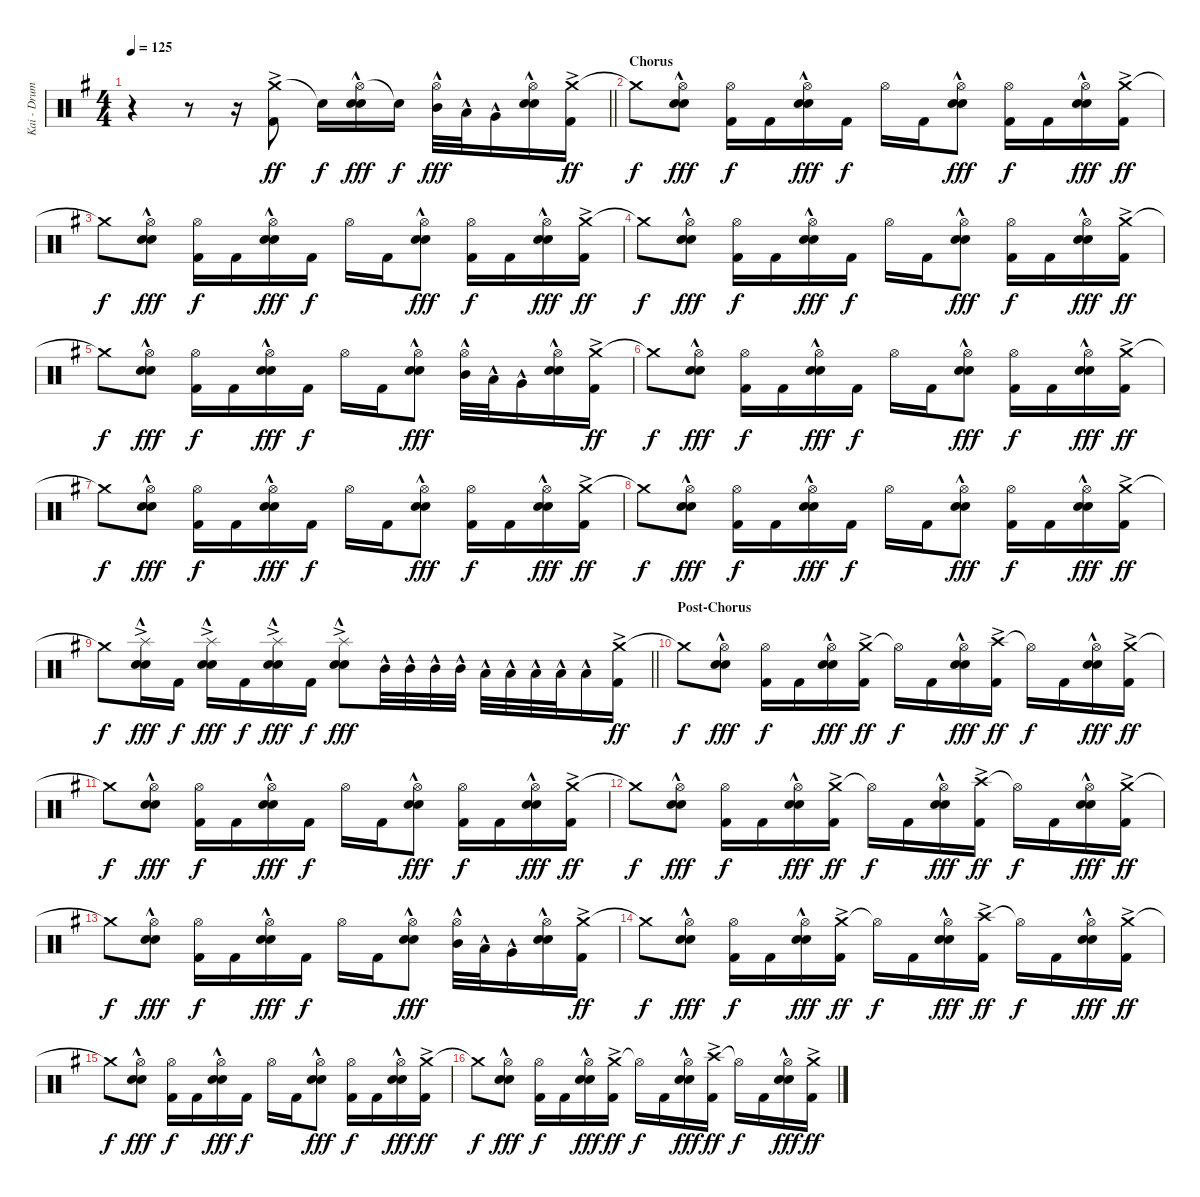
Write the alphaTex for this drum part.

\track ("Kai - Drums" "Kai - Drum") {instrument percussion}
\staff {score}
\articulation defaults
\ts (4 4)
\tempo 125
\clef neutral
\barLineRight lightlight
\ks eminor
r.4{dy fff} r.8 r.16 ("Crash medium (hit)"{ac} "Kick (hit) 2").8{dy ff} "Snare (hit)"{t}.16{dy f} ("Hi-Hat (open)" "Electric Snare (hit)"{hac} "Snare (hit) 2"{hac}).16{dy fff} "Snare (hit)"{t}.16{dy f} ("Hi-Hat (open)" "Mid Tom (hit)"{hac}).32{dy fff} "Low Tom (hit)"{hac}.32 "Very Low Tom (hit)"{hac}.16 ("Hi-Hat (open)" "Electric Snare (hit)"{hac} "Snare (hit) 2"{hac}).16 ("Crash medium (hit)"{ac} "Kick (hit) 2").16{dy ff} |
\section ("" "Chorus")
"Crash medium (hit)"{t}.8{dy f} ("Hi-Hat (open)" "Electric Snare (hit)"{hac} "Snare (hit) 2"{hac}).8{dy fff} ("Hi-Hat (open)" "Kick (hit) 2").16{dy f} "Kick (hit) 2".16 ("Hi-Hat (open)" "Electric Snare (hit)"{hac} "Snare (hit) 2"{hac}).16{dy fff} "Kick (hit) 2".16{dy f} "Hi-Hat (open)".16 "Kick (hit) 2".16 ("Hi-Hat (open)" "Electric Snare (hit)"{hac} "Snare (hit) 2"{hac}).8{dy fff} ("Hi-Hat (open)" "Kick (hit) 2").16{dy f} "Kick (hit) 2".16 ("Hi-Hat (open)" "Electric Snare (hit)"{hac} "Snare (hit) 2"{hac}).16{dy fff} ("Crash medium (hit)"{ac} "Kick (hit) 2").16{dy ff} |
"Crash medium (hit)"{t}.8{dy f} ("Hi-Hat (open)" "Electric Snare (hit)"{hac} "Snare (hit) 2"{hac}).8{dy fff} ("Hi-Hat (open)" "Kick (hit) 2").16{dy f} "Kick (hit) 2".16 ("Hi-Hat (open)" "Electric Snare (hit)"{hac} "Snare (hit) 2"{hac}).16{dy fff} "Kick (hit) 2".16{dy f} "Hi-Hat (open)".16 "Kick (hit) 2".16 ("Hi-Hat (open)" "Electric Snare (hit)"{hac} "Snare (hit) 2"{hac}).8{dy fff} ("Hi-Hat (open)" "Kick (hit) 2").16{dy f} "Kick (hit) 2".16 ("Hi-Hat (open)" "Electric Snare (hit)"{hac} "Snare (hit) 2"{hac}).16{dy fff} ("Crash medium (hit)"{ac} "Kick (hit) 2").16{dy ff} |
"Crash medium (hit)"{t}.8{dy f} ("Hi-Hat (open)" "Electric Snare (hit)"{hac} "Snare (hit) 2"{hac}).8{dy fff} ("Hi-Hat (open)" "Kick (hit) 2").16{dy f} "Kick (hit) 2".16 ("Hi-Hat (open)" "Electric Snare (hit)"{hac} "Snare (hit) 2"{hac}).16{dy fff} "Kick (hit) 2".16{dy f} "Hi-Hat (open)".16 "Kick (hit) 2".16 ("Hi-Hat (open)" "Electric Snare (hit)"{hac} "Snare (hit) 2"{hac}).8{dy fff} ("Hi-Hat (open)" "Kick (hit) 2").16{dy f} "Kick (hit) 2".16 ("Hi-Hat (open)" "Electric Snare (hit)"{hac} "Snare (hit) 2"{hac}).16{dy fff} ("Crash medium (hit)"{ac} "Kick (hit) 2").16{dy ff} |
"Crash medium (hit)"{t}.8{dy f} ("Hi-Hat (open)" "Electric Snare (hit)"{hac} "Snare (hit) 2"{hac}).8{dy fff} ("Hi-Hat (open)" "Kick (hit) 2").16{dy f} "Kick (hit) 2".16 ("Hi-Hat (open)" "Electric Snare (hit)"{hac} "Snare (hit) 2"{hac}).16{dy fff} "Kick (hit) 2".16{dy f} "Hi-Hat (open)".16 "Kick (hit) 2".16 ("Hi-Hat (open)" "Electric Snare (hit)"{hac} "Snare (hit) 2"{hac}).8{dy fff} ("Hi-Hat (open)" "Mid Tom (hit)"{hac}).32 "Low Tom (hit)"{hac}.32 "Very Low Tom (hit)"{hac}.16 ("Hi-Hat (open)" "Electric Snare (hit)"{hac} "Snare (hit) 2"{hac}).16 ("Crash medium (hit)"{ac} "Kick (hit) 2").16{dy ff} |
"Crash medium (hit)"{t}.8{dy f} ("Hi-Hat (open)" "Electric Snare (hit)"{hac} "Snare (hit) 2"{hac}).8{dy fff} ("Hi-Hat (open)" "Kick (hit) 2").16{dy f} "Kick (hit) 2".16 ("Hi-Hat (open)" "Electric Snare (hit)"{hac} "Snare (hit) 2"{hac}).16{dy fff} "Kick (hit) 2".16{dy f} "Hi-Hat (open)".16 "Kick (hit) 2".16 ("Hi-Hat (open)" "Electric Snare (hit)"{hac} "Snare (hit) 2"{hac}).8{dy fff} ("Hi-Hat (open)" "Kick (hit) 2").16{dy f} "Kick (hit) 2".16 ("Hi-Hat (open)" "Electric Snare (hit)"{hac} "Snare (hit) 2"{hac}).16{dy fff} ("Crash medium (hit)"{ac} "Kick (hit) 2").16{dy ff} |
"Crash medium (hit)"{t}.8{dy f} ("Hi-Hat (open)" "Electric Snare (hit)"{hac} "Snare (hit) 2"{hac}).8{dy fff} ("Hi-Hat (open)" "Kick (hit) 2").16{dy f} "Kick (hit) 2".16 ("Hi-Hat (open)" "Electric Snare (hit)"{hac} "Snare (hit) 2"{hac}).16{dy fff} "Kick (hit) 2".16{dy f} "Hi-Hat (open)".16 "Kick (hit) 2".16 ("Hi-Hat (open)" "Electric Snare (hit)"{hac} "Snare (hit) 2"{hac}).8{dy fff} ("Hi-Hat (open)" "Kick (hit) 2").16{dy f} "Kick (hit) 2".16 ("Hi-Hat (open)" "Electric Snare (hit)"{hac} "Snare (hit) 2"{hac}).16{dy fff} ("Crash medium (hit)"{ac} "Kick (hit) 2").16{dy ff} |
"Crash medium (hit)"{t}.8{dy f} ("Hi-Hat (open)" "Electric Snare (hit)"{hac} "Snare (hit) 2"{hac}).8{dy fff} ("Hi-Hat (open)" "Kick (hit) 2").16{dy f} "Kick (hit) 2".16 ("Hi-Hat (open)" "Electric Snare (hit)"{hac} "Snare (hit) 2"{hac}).16{dy fff} "Kick (hit) 2".16{dy f} "Hi-Hat (open)".16 "Kick (hit) 2".16 ("Hi-Hat (open)" "Electric Snare (hit)"{hac} "Snare (hit) 2"{hac}).8{dy fff} ("Hi-Hat (open)" "Kick (hit) 2").16{dy f} "Kick (hit) 2".16 ("Hi-Hat (open)" "Electric Snare (hit)"{hac} "Snare (hit) 2"{hac}).16{dy fff} ("Crash medium (hit)"{ac} "Kick (hit) 2").16{dy ff} |
\barLineRight lightlight "Crash medium (hit)"{t}.8{dy f}
("Splash (hit)"{ac} "Electric Snare (hit)"{hac} "Snare (hit) 2"{hac}).16{dy fff} "Kick (hit) 2".16{dy f} ("Splash (hit)"{ac} "Electric Snare (hit)"{hac} "Snare (hit) 2"{hac}).16{dy fff} "Kick (hit) 2".16{dy f} ("Splash (hit)"{ac} "Electric Snare (hit)"{hac} "Snare (hit) 2"{hac}).16{dy fff} "Kick (hit) 2".16{dy f} ("Splash (hit)"{ac} "Electric Snare (hit)"{hac} "Snare (hit) 2"{hac}).8{dy fff} "Mid Tom (hit)"{hac}.32 "Mid Tom (hit)"{hac}.32 "Mid Tom (hit)"{hac}.32 "Mid Tom (hit)"{hac}.32 "Low Tom (hit)"{hac}.32 "Low Tom (hit)"{hac}.32 "Low Tom (hit)"{hac}.32 "Low Tom (hit)"{hac}.32 "Low Tom (hit)"{hac}.16 ("Crash medium (hit)"{ac} "Kick (hit) 2").16{dy ff} |
\section ("" "Post-Chorus")
"Crash medium (hit)"{t}.8{dy f} ("Hi-Hat (open)" "Electric Snare (hit)"{hac} "Snare (hit) 2"{hac}).8{dy fff} ("Hi-Hat (open)" "Kick (hit) 2").16{dy f} "Kick (hit) 2".16 ("Hi-Hat (open)" "Electric Snare (hit)"{hac} "Snare (hit) 2"{hac}).16{dy fff} ("Crash medium (hit)"{ac} "Kick (hit) 2").16{dy ff} "Hi-Hat (open)"{t}.16{dy f} "Kick (hit) 2".16 ("Hi-Hat (open)" "Electric Snare (hit)"{hac} "Snare (hit) 2"{hac}).16{dy fff} ("Crash high (hit)"{ac} "Kick (hit) 2").16{dy ff} "Hi-Hat (open)"{t}.16{dy f} "Kick (hit) 2".16 ("Hi-Hat (open)" "Electric Snare (hit)"{hac} "Snare (hit) 2"{hac}).16{dy fff} ("Crash medium (hit)"{ac} "Kick (hit) 2").16{dy ff} |
"Crash medium (hit)"{t}.8{dy f} ("Hi-Hat (open)" "Electric Snare (hit)"{hac} "Snare (hit) 2"{hac}).8{dy fff} ("Hi-Hat (open)" "Kick (hit) 2").16{dy f} "Kick (hit) 2".16 ("Hi-Hat (open)" "Electric Snare (hit)"{hac} "Snare (hit) 2"{hac}).16{dy fff} "Kick (hit) 2".16{dy f} "Hi-Hat (open)".16 "Kick (hit) 2".16 ("Hi-Hat (open)" "Electric Snare (hit)"{hac} "Snare (hit) 2"{hac}).8{dy fff} ("Hi-Hat (open)" "Kick (hit) 2").16{dy f} "Kick (hit) 2".16 ("Hi-Hat (open)" "Electric Snare (hit)"{hac} "Snare (hit) 2"{hac}).16{dy fff} ("Crash medium (hit)"{ac} "Kick (hit) 2").16{dy ff} |
"Crash medium (hit)"{t}.8{dy f} ("Hi-Hat (open)" "Electric Snare (hit)"{hac} "Snare (hit) 2"{hac}).8{dy fff} ("Hi-Hat (open)" "Kick (hit) 2").16{dy f} "Kick (hit) 2".16 ("Hi-Hat (open)" "Electric Snare (hit)"{hac} "Snare (hit) 2"{hac}).16{dy fff} ("Crash medium (hit)"{ac} "Kick (hit) 2").16{dy ff} "Hi-Hat (open)"{t}.16{dy f} "Kick (hit) 2".16 ("Hi-Hat (open)" "Electric Snare (hit)"{hac} "Snare (hit) 2"{hac}).16{dy fff} ("Crash high (hit)"{ac} "Kick (hit) 2").16{dy ff} "Hi-Hat (open)"{t}.16{dy f} "Kick (hit) 2".16 ("Hi-Hat (open)" "Electric Snare (hit)"{hac} "Snare (hit) 2"{hac}).16{dy fff} ("Crash medium (hit)"{ac} "Kick (hit) 2").16{dy ff} |
"Crash medium (hit)"{t}.8{dy f} ("Hi-Hat (open)" "Electric Snare (hit)"{hac} "Snare (hit) 2"{hac}).8{dy fff} ("Hi-Hat (open)" "Kick (hit) 2").16{dy f} "Kick (hit) 2".16 ("Hi-Hat (open)" "Electric Snare (hit)"{hac} "Snare (hit) 2"{hac}).16{dy fff} "Kick (hit) 2".16{dy f} "Hi-Hat (open)".16 "Kick (hit) 2".16 ("Hi-Hat (open)" "Electric Snare (hit)"{hac} "Snare (hit) 2"{hac}).8{dy fff} ("Hi-Hat (open)" "Mid Tom (hit)"{hac}).32 "Low Tom (hit)"{hac}.32 "Very Low Tom (hit)"{hac}.16 ("Hi-Hat (open)" "Electric Snare (hit)"{hac} "Snare (hit) 2"{hac}).16 ("Crash medium (hit)"{ac} "Kick (hit) 2").16{dy ff} |
"Crash medium (hit)"{t}.8{dy f} ("Hi-Hat (open)" "Electric Snare (hit)"{hac} "Snare (hit) 2"{hac}).8{dy fff} ("Hi-Hat (open)" "Kick (hit) 2").16{dy f} "Kick (hit) 2".16 ("Hi-Hat (open)" "Electric Snare (hit)"{hac} "Snare (hit) 2"{hac}).16{dy fff} ("Crash medium (hit)"{ac} "Kick (hit) 2").16{dy ff} "Hi-Hat (open)"{t}.16{dy f} "Kick (hit) 2".16 ("Hi-Hat (open)" "Electric Snare (hit)"{hac} "Snare (hit) 2"{hac}).16{dy fff} ("Crash high (hit)"{ac} "Kick (hit) 2").16{dy ff} "Hi-Hat (open)"{t}.16{dy f} "Kick (hit) 2".16 ("Hi-Hat (open)" "Electric Snare (hit)"{hac} "Snare (hit) 2"{hac}).16{dy fff} ("Crash medium (hit)"{ac} "Kick (hit) 2").16{dy ff} |
"Crash medium (hit)"{t}.8{dy f} ("Hi-Hat (open)" "Electric Snare (hit)"{hac} "Snare (hit) 2"{hac}).8{dy fff} ("Hi-Hat (open)" "Kick (hit) 2").16{dy f} "Kick (hit) 2".16 ("Hi-Hat (open)" "Electric Snare (hit)"{hac} "Snare (hit) 2"{hac}).16{dy fff} "Kick (hit) 2".16{dy f} "Hi-Hat (open)".16 "Kick (hit) 2".16 ("Hi-Hat (open)" "Electric Snare (hit)"{hac} "Snare (hit) 2"{hac}).8{dy fff} ("Hi-Hat (open)" "Kick (hit) 2").16{dy f} "Kick (hit) 2".16 ("Hi-Hat (open)" "Electric Snare (hit)"{hac} "Snare (hit) 2"{hac}).16{dy fff} ("Crash medium (hit)"{ac} "Kick (hit) 2").16{dy ff} |
"Crash medium (hit)"{t}.8{dy f} ("Hi-Hat (open)" "Electric Snare (hit)"{hac} "Snare (hit) 2"{hac}).8{dy fff} ("Hi-Hat (open)" "Kick (hit) 2").16{dy f} "Kick (hit) 2".16 ("Hi-Hat (open)" "Electric Snare (hit)"{hac} "Snare (hit) 2"{hac}).16{dy fff} ("Crash medium (hit)"{ac} "Kick (hit) 2").16{dy ff} "Hi-Hat (open)"{t}.16{dy f} "Kick (hit) 2".16 ("Hi-Hat (open)" "Electric Snare (hit)"{hac} "Snare (hit) 2"{hac}).16{dy fff} ("Crash high (hit)"{ac} "Kick (hit) 2").16{dy ff} "Hi-Hat (open)"{t}.16{dy f} "Kick (hit) 2".16 ("Hi-Hat (open)" "Electric Snare (hit)"{hac} "Snare (hit) 2"{hac}).16{dy fff} ("Crash medium (hit)"{ac} "Kick (hit) 2").16{dy ff}
